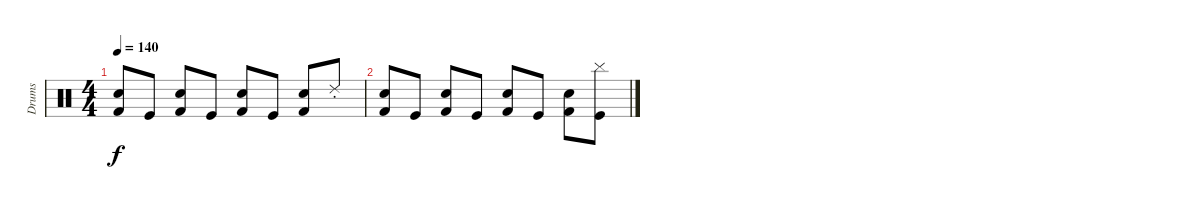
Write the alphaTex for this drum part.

\track ("Drums" "Drums") {instrument percussion}
\staff {score}
\articulation defaults
\ts (4 4)
\tempo 140
\clef neutral
\ks c
("Kick (hit) 2" "Hand Clap (hit)").8{dy f} "Kick (hit)".8 ("Kick (hit) 2" "Hand Clap (hit)").8 "Kick (hit)".8 ("Kick (hit) 2" "Hand Clap (hit)").8 "Kick (hit)".8 ("Kick (hit) 2" "Hand Clap (hit)").8 "Ride (choke) 2".8 |
("Kick (hit) 2" "Hand Clap (hit)").8 "Kick (hit)".8 ("Kick (hit) 2" "Hand Clap (hit)").8 "Kick (hit)".8 ("Kick (hit) 2" "Hand Clap (hit)").8 "Kick (hit)".8 ("Kick (hit) 2" "Hand Clap (hit)").8 ("Kick (hit)" "Cymbal (hit)").8
